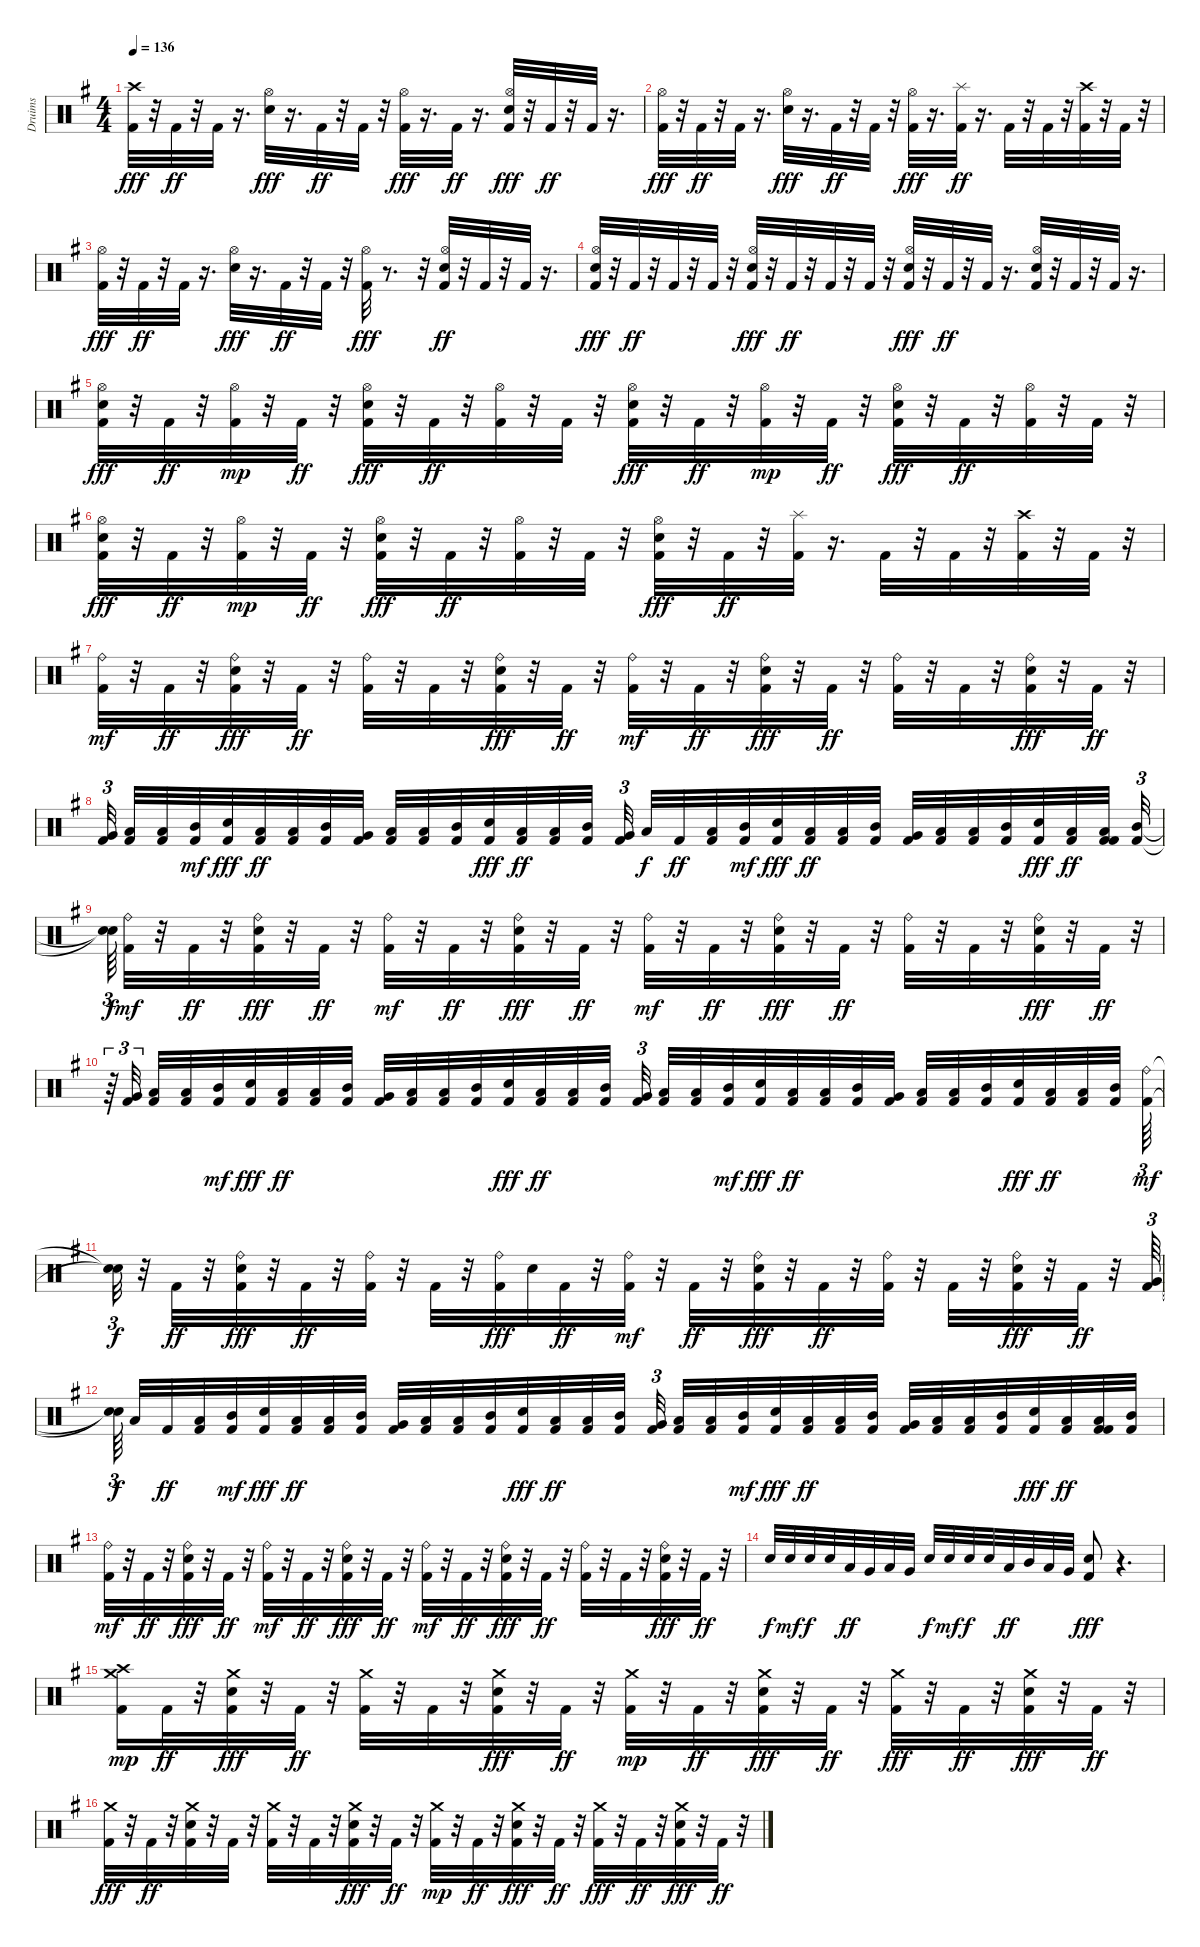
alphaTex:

\track ("Druims" "Druims") {instrument percussion}
\staff {score}
\articulation defaults
\ts (4 4)
\tempo 136
\clef neutral
\ks eminor
("Kick (hit) 2" "Crash high (hit)").32{dy fff} r.32 "Kick (hit) 2".32{dy ff} r.32 "Kick (hit) 2".32 r.16{d} ("Hi-Hat (open)" "Snare (hit) 2").32{dy fff} r.16{d} "Kick (hit) 2".32{dy ff} r.32 "Kick (hit) 2".32 r.32 ("Kick (hit) 2" "Hi-Hat (open)").32{dy fff} r.16{d} "Kick (hit) 2".32{dy ff} r.16{d} ("Hi-Hat (open)" "Kick (hit) 2" "Snare (hit) 2").32{dy fff} r.32 "Kick (hit) 2".32{dy ff} r.32 "Kick (hit) 2".32 r.16{d} |
("Kick (hit) 2" "Hi-Hat (open)").32{dy fff} r.32 "Kick (hit) 2".32{dy ff} r.32 "Kick (hit) 2".32 r.16{d} ("Hi-Hat (open)" "Snare (hit) 2").32{dy fff} r.16{d} "Kick (hit) 2".32{dy ff} r.32 "Kick (hit) 2".32 r.32 ("Kick (hit) 2" "Hi-Hat (open)").32{dy fff} r.16{d} ("Splash (hit)" "Kick (hit) 2").32{dy ff} r.16{d} "Kick (hit) 2".32 r.32 "Kick (hit) 2".32 r.32 ("Crash high (hit)" "Kick (hit) 2").32 r.32 "Kick (hit) 2".32 r.32 |
("Kick (hit) 2" "Hi-Hat (open)").32{dy fff} r.32 "Kick (hit) 2".32{dy ff} r.32 "Kick (hit) 2".32 r.16{d} ("Hi-Hat (open)" "Snare (hit) 2").32{dy fff} r.16{d} "Kick (hit) 2".32{dy ff} r.32 "Kick (hit) 2".32 r.32 ("Kick (hit) 2" "Hi-Hat (open)").32{dy fff} r.8{d} r.32 ("Snare (hit) 2" "Hi-Hat (open)" "Kick (hit) 2").32{dy ff} r.32 "Kick (hit) 2".32 r.32 "Kick (hit) 2".32 r.16{d} |
("Kick (hit) 2" "Snare (hit)" "Hi-Hat (open)").32{dy fff} r.32 "Kick (hit) 2".32{dy ff} r.32 "Kick (hit) 2".32 r.32 "Kick (hit) 2".32 r.32 ("Hi-Hat (open)" "Kick (hit) 2" "Snare (hit) 2").32{dy fff} r.32 "Kick (hit) 2".32{dy ff} r.32 "Kick (hit) 2".32 r.32 "Kick (hit) 2".32 r.32 ("Snare (hit) 2" "Kick (hit) 2" "Hi-Hat (open)").32{dy fff} r.32 "Kick (hit) 2".32{dy ff} r.32 "Kick (hit) 2".32 r.16{d} ("Hi-Hat (open)" "Snare (hit) 2" "Kick (hit) 2").32 r.32 "Kick (hit) 2".32 r.32 "Kick (hit) 2".32 r.16{d} |
("Kick (hit) 2" "Hi-Hat (open)" "Snare (hit) 2").32{dy fff} r.32 "Kick (hit) 2".32{dy ff} r.32 ("Kick (hit) 2" "Hi-Hat (open)").32{dy mp} r.32 "Kick (hit) 2".32{dy ff} r.32 ("Kick (hit) 2" "Hi-Hat (open)" "Snare (hit) 2").32{dy fff} r.32 "Kick (hit) 2".32{dy ff} r.32 ("Hi-Hat (open)" "Kick (hit) 2").32 r.32 "Kick (hit) 2".32 r.32 ("Kick (hit) 2" "Hi-Hat (open)" "Snare (hit) 2").32{dy fff} r.32 "Kick (hit) 2".32{dy ff} r.32 ("Kick (hit) 2" "Hi-Hat (open)").32{dy mp} r.32 "Kick (hit) 2".32{dy ff} r.32 ("Kick (hit) 2" "Snare (hit) 2" "Hi-Hat (open)").32{dy fff} r.32 "Kick (hit) 2".32{dy ff} r.32 ("Hi-Hat (open)" "Kick (hit) 2").32 r.32 "Kick (hit) 2".32 r.32 |
("Kick (hit) 2" "Hi-Hat (open)" "Snare (hit) 2").32{dy fff} r.32 "Kick (hit) 2".32{dy ff} r.32 ("Kick (hit) 2" "Hi-Hat (open)").32{dy mp} r.32 "Kick (hit) 2".32{dy ff} r.32 ("Kick (hit) 2" "Snare (hit) 2" "Hi-Hat (open)").32{dy fff} r.32 "Kick (hit) 2".32{dy ff} r.32 ("Hi-Hat (open)" "Kick (hit) 2").32 r.32 "Kick (hit) 2".32 r.32 ("Kick (hit) 2" "Hi-Hat (open)" "Snare (hit) 2").32{dy fff} r.32 "Kick (hit) 2".32{dy ff} r.32 ("Splash (hit)" "Kick (hit) 2").32 r.16{d} "Kick (hit) 2".32 r.32 "Kick (hit) 2".32 r.32 ("Crash high (hit)" "Kick (hit) 2").32 r.32 "Kick (hit) 2".32 r.32 |
("Kick (hit) 2" "Ride (bell)").32{dy mf} r.32 "Kick (hit) 2".32{dy ff} r.32 ("Kick (hit) 2" "Ride (bell)" "Snare (hit) 2").32{dy fff} r.32 "Kick (hit) 2".32{dy ff} r.32 ("Ride (bell)" "Kick (hit) 2").32 r.32 "Kick (hit) 2".32 r.32 ("Kick (hit) 2" "Ride (bell)" "Snare (hit) 2").32{dy fff} r.32 "Kick (hit) 2".32{dy ff} r.32 ("Kick (hit) 2" "Ride (bell)").32{dy mf} r.32 "Kick (hit) 2".32{dy ff} r.32 ("Kick (hit) 2" "Snare (hit) 2" "Ride (bell)").32{dy fff} r.32 "Kick (hit) 2".32{dy ff} r.32 ("Ride (bell)" "Kick (hit) 2").32 r.32 "Kick (hit) 2".32 r.32 ("Kick (hit) 2" "Ride (bell)" "Snare (hit) 2").32{dy fff} r.32 "Kick (hit) 2".32{dy ff} r.32 |
("Kick (hit) 2" "Very Low Tom (hit)").32{tu (3 2) beam splitsecondary} ("Low Tom (hit)" "Kick (hit) 2").32 ("Low Floor Tom (hit)" "Kick (hit) 2").32 ("Kick (hit) 2" "Mid Tom (hit)").32{dy mf} ("Kick (hit) 2" "Snare (hit) 2").32{dy fff} ("Kick (hit) 2" "Low Tom (hit)").32{dy ff} ("Low Floor Tom (hit)" "Kick (hit) 2").32 ("Kick (hit) 2" "Mid Tom (hit)").32 ("Kick (hit) 2" "Very Low Tom (hit)").32 ("Kick (hit) 2" "Low Tom (hit)").32 ("Kick (hit) 2" "Low Floor Tom (hit)").32 ("Kick (hit) 2" "Mid Tom (hit)").32 ("Kick (hit) 2" "Snare (hit) 2").32{dy fff} ("Kick (hit) 2" "Low Tom (hit)").32{dy ff} ("Kick (hit) 2" "Low Floor Tom (hit)").32 ("Kick (hit) 2" "Mid Tom (hit)").32{beam splitsecondary} ("Kick (hit) 2" "Very Low Tom (hit)").32{tu (3 2)} "Low Tom (hit)".32{dy f} "Kick (hit) 2".32{dy ff} ("Low Floor Tom (hit)" "Kick (hit) 2").32 ("Kick (hit) 2" "Mid Tom (hit)").32{dy mf} ("Kick (hit) 2" "Snare (hit) 2").32{dy fff} ("Kick (hit) 2" "Low Tom (hit)").32{dy ff} ("Low Floor Tom (hit)" "Kick (hit) 2").32 ("Kick (hit) 2" "Mid Tom (hit)").32 ("Kick (hit) 2" "Very Low Tom (hit)").32 ("Kick (hit) 2" "Low Tom (hit)").32 ("Kick (hit) 2" "Low Floor Tom (hit)").32 ("Kick (hit) 2" "Mid Tom (hit)").32 ("Kick (hit) 2" "Snare (hit) 2").32{dy fff} ("Kick (hit) 2" "Low Tom (hit)").32{dy ff} ("Kick (hit) 2" "Kick (hit) 2" "Low Floor Tom (hit)").32{beam splitsecondary} ("Kick (hit) 2" "Mid Tom (hit)").32{tu (3 2)} |
("Snare (hit)"{t} "Snare (hit)"{t}).64{tu (3 2) dy f} ("Kick (hit) 2" "Ride (bell)").32{dy mf} r.32 "Kick (hit) 2".32{dy ff} r.32 ("Kick (hit) 2" "Snare (hit) 2" "Ride (bell)").32{dy fff} r.32 "Kick (hit) 2".32{dy ff} r.32 ("Kick (hit) 2" "Ride (bell)").32{dy mf} r.32 "Kick (hit) 2".32{dy ff} r.32 ("Kick (hit) 2" "Snare (hit) 2" "Ride (bell)").32{dy fff} r.32 "Kick (hit) 2".32{dy ff} r.32 ("Kick (hit) 2" "Ride (bell)").32{dy mf} r.32 "Kick (hit) 2".32{dy ff} r.32 ("Snare (hit) 2" "Kick (hit) 2" "Ride (bell)").32{dy fff} r.32 "Kick (hit) 2".32{dy ff} r.32 ("Ride (bell)" "Kick (hit) 2").32 r.32 "Kick (hit) 2".32 r.32 ("Kick (hit) 2" "Snare (hit) 2" "Ride (bell)").32{dy fff} r.32 "Kick (hit) 2".32{dy ff} r.32{tu (3 2)} |
r.64{tu (3 2)} ("Kick (hit) 2" "Very Low Tom (hit)").32{tu (3 2) beam splitsecondary} ("Low Tom (hit)" "Kick (hit) 2").32 ("Low Floor Tom (hit)" "Kick (hit) 2").32 ("Kick (hit) 2" "Mid Tom (hit)").32{dy mf} ("Kick (hit) 2" "Snare (hit) 2").32{dy fff} ("Kick (hit) 2" "Low Tom (hit)").32{dy ff} ("Low Floor Tom (hit)" "Kick (hit) 2").32 ("Kick (hit) 2" "Mid Tom (hit)").32 ("Kick (hit) 2" "Very Low Tom (hit)").32 ("Kick (hit) 2" "Low Tom (hit)").32 ("Kick (hit) 2" "Low Floor Tom (hit)").32 ("Kick (hit) 2" "Mid Tom (hit)").32 ("Kick (hit) 2" "Snare (hit) 2").32{dy fff} ("Kick (hit) 2" "Low Tom (hit)").32{dy ff} ("Kick (hit) 2" "Low Floor Tom (hit)").32 ("Kick (hit) 2" "Mid Tom (hit)").32 ("Kick (hit) 2" "Very Low Tom (hit)").32{tu (3 2) beam splitsecondary} ("Low Tom (hit)" "Kick (hit) 2").32 ("Low Floor Tom (hit)" "Kick (hit) 2").32 ("Kick (hit) 2" "Mid Tom (hit)").32{dy mf} ("Kick (hit) 2" "Snare (hit) 2").32{dy fff} ("Kick (hit) 2" "Low Tom (hit)").32{dy ff} ("Low Floor Tom (hit)" "Kick (hit) 2").32 ("Kick (hit) 2" "Mid Tom (hit)").32 ("Kick (hit) 2" "Very Low Tom (hit)").32 ("Kick (hit) 2" "Low Tom (hit)").32 ("Kick (hit) 2" "Low Floor Tom (hit)").32 ("Kick (hit) 2" "Mid Tom (hit)").32 ("Kick (hit) 2" "Snare (hit) 2").32{dy fff} ("Kick (hit) 2" "Low Tom (hit)").32{dy ff} ("Kick (hit) 2" "Low Floor Tom (hit)").32 ("Kick (hit) 2" "Mid Tom (hit)").32{beam splitsecondary} ("Kick (hit) 2" "Ride (bell)").64{tu (3 2) dy mf} |
("Snare (hit)"{t} "Snare (hit)"{t}).32{tu (3 2) dy f} r.32 "Kick (hit) 2".32{dy ff} r.32 ("Kick (hit) 2" "Ride (bell)" "Snare (hit) 2").32{dy fff} r.32 "Kick (hit) 2".32{dy ff} r.32 ("Ride (bell)" "Kick (hit) 2").32 r.32 "Kick (hit) 2".32 r.32 ("Kick (hit) 2" "Ride (bell)").32{dy fff} "Snare (hit) 2".32 "Kick (hit) 2".32{dy ff} r.32 ("Kick (hit) 2" "Ride (bell)").32{dy mf} r.32 "Kick (hit) 2".32{dy ff} r.32 ("Kick (hit) 2" "Snare (hit) 2" "Ride (bell)").32{dy fff} r.32 "Kick (hit) 2".32{dy ff} r.32 ("Ride (bell)" "Kick (hit) 2").32 r.32 "Kick (hit) 2".32 r.32 ("Kick (hit) 2" "Ride (bell)" "Snare (hit) 2").32{dy fff} r.32 "Kick (hit) 2".32{dy ff} r.32 ("Kick (hit) 2" "Very Low Tom (hit)").64{tu (3 2)} |
("Snare (hit)"{t} "Snare (hit)"{t}).64{tu (3 2) dy f beam splitsecondary} "Low Tom (hit)".32 "Kick (hit) 2".32{dy ff} ("Low Floor Tom (hit)" "Kick (hit) 2").32 ("Kick (hit) 2" "Mid Tom (hit)").32{dy mf} ("Kick (hit) 2" "Snare (hit) 2").32{dy fff} ("Kick (hit) 2" "Low Tom (hit)").32{dy ff} ("Low Floor Tom (hit)" "Kick (hit) 2").32 ("Kick (hit) 2" "Mid Tom (hit)").32 ("Kick (hit) 2" "Very Low Tom (hit)").32 ("Kick (hit) 2" "Low Tom (hit)").32 ("Kick (hit) 2" "Low Floor Tom (hit)").32 ("Kick (hit) 2" "Mid Tom (hit)").32 ("Kick (hit) 2" "Snare (hit) 2").32{dy fff} ("Kick (hit) 2" "Low Tom (hit)").32{dy ff} ("Kick (hit) 2" "Low Floor Tom (hit)").32 ("Kick (hit) 2" "Mid Tom (hit)").32 ("Kick (hit) 2" "Very Low Tom (hit)").32{tu (3 2) beam splitsecondary} ("Low Tom (hit)" "Kick (hit) 2").32 ("Low Floor Tom (hit)" "Kick (hit) 2").32 ("Kick (hit) 2" "Mid Tom (hit)").32{dy mf} ("Kick (hit) 2" "Snare (hit) 2").32{dy fff} ("Kick (hit) 2" "Low Tom (hit)").32{dy ff} ("Low Floor Tom (hit)" "Kick (hit) 2").32 ("Kick (hit) 2" "Mid Tom (hit)").32 ("Kick (hit) 2" "Very Low Tom (hit)").32 ("Kick (hit) 2" "Low Tom (hit)").32 ("Kick (hit) 2" "Low Floor Tom (hit)").32 ("Kick (hit) 2" "Mid Tom (hit)").32 ("Kick (hit) 2" "Snare (hit) 2").32{dy fff} ("Kick (hit) 2" "Low Tom (hit)").32{dy ff} ("Kick (hit) 2" "Kick (hit) 2" "Low Floor Tom (hit)").32 ("Kick (hit) 2" "Mid Tom (hit)").32 |
("Kick (hit) 2" "Ride (bell)").32{dy mf} r.32 "Kick (hit) 2".32{dy ff} r.32 ("Kick (hit) 2" "Snare (hit) 2" "Ride (bell)").32{dy fff} r.32 "Kick (hit) 2".32{dy ff} r.32 ("Kick (hit) 2" "Ride (bell)").32{dy mf} r.32 "Kick (hit) 2".32{dy ff} r.32 ("Kick (hit) 2" "Snare (hit) 2" "Ride (bell)").32{dy fff} r.32 "Kick (hit) 2".32{dy ff} r.32 ("Kick (hit) 2" "Ride (bell)").32{dy mf} r.32 "Kick (hit) 2".32{dy ff} r.32 ("Snare (hit) 2" "Kick (hit) 2" "Ride (bell)").32{dy fff} r.32 "Kick (hit) 2".32{dy ff} r.32 ("Ride (bell)" "Kick (hit) 2").32 r.32 "Kick (hit) 2".32 r.32 ("Kick (hit) 2" "Snare (hit) 2" "Ride (bell)").32{dy fff} r.32 "Kick (hit) 2".32{dy ff} r.32 |
"Snare (hit) 2".32{dy f} "Snare (hit) 2".32{dy mf} "Snare (hit) 2".32{dy f} "Snare (hit) 2".32 "Low Floor Tom (hit)".32{dy ff} "Very Low Tom (hit)".32 "Low Floor Tom (hit)".32 "Very Low Tom (hit)".32 "Snare (hit) 2".32{dy f} "Snare (hit) 2".32{dy mf} "Snare (hit) 2".32{dy f} "Snare (hit) 2".32 "Low Tom (hit)".32{dy ff} "Mid Tom (hit)".32 "Low Floor Tom (hit)".32 "Very Low Tom (hit)".32 ("Kick (hit) 2" "Snare (hit) 2").8{dy fff} r.4{d} |
("Kick (hit) 2" "Crash high (hit)" "Crash medium (hit)").16{dy mp} "Kick (hit) 2".32{dy ff} r.32 ("Kick (hit) 2" "Crash medium (hit)" "Snare (hit) 2").32{dy fff} r.32 "Kick (hit) 2".32{dy ff} r.32 ("Crash medium (hit)" "Kick (hit) 2").32 r.32 "Kick (hit) 2".32 r.32 ("Kick (hit) 2" "Crash medium (hit)" "Snare (hit) 2").32{dy fff} r.32 "Kick (hit) 2".32{dy ff} r.32 ("Kick (hit) 2" "Crash medium (hit)").32{dy mp} r.32 "Kick (hit) 2".32{dy ff} r.32 ("Kick (hit) 2" "Crash medium (hit)" "Snare (hit) 2").32{dy fff} r.32 "Kick (hit) 2".32{dy ff} r.32 ("Kick (hit) 2" "Crash medium (hit)").32{dy fff} r.32 "Kick (hit) 2".32{dy ff} r.32 ("Kick (hit) 2" "Crash medium (hit)" "Snare (hit) 2").32{dy fff} r.32 "Kick (hit) 2".32{dy ff} r.32 |
("Kick (hit) 2" "Crash medium (hit)").32{dy fff} r.32 "Kick (hit) 2".32{dy ff} r.32 ("Kick (hit) 2" "Snare (hit) 2" "Crash medium (hit)").32 r.32 "Kick (hit) 2".32 r.32 ("Crash medium (hit)" "Kick (hit) 2").32 r.32 "Kick (hit) 2".32 r.32 ("Kick (hit) 2" "Crash medium (hit)" "Snare (hit) 2").32{dy fff} r.32 "Kick (hit) 2".32{dy ff} r.32 ("Kick (hit) 2" "Crash medium (hit)").32{dy mp} r.32 "Kick (hit) 2".32{dy ff} r.32 ("Kick (hit) 2" "Snare (hit) 2" "Crash medium (hit)").32{dy fff} r.32 "Kick (hit) 2".32{dy ff} r.32 ("Kick (hit) 2" "Crash medium (hit)").32{dy fff} r.32 "Kick (hit) 2".32{dy ff} r.32 ("Crash medium (hit)" "Kick (hit) 2" "Snare (hit) 2").32{dy fff} r.32 "Kick (hit) 2".32{dy ff} r.32
